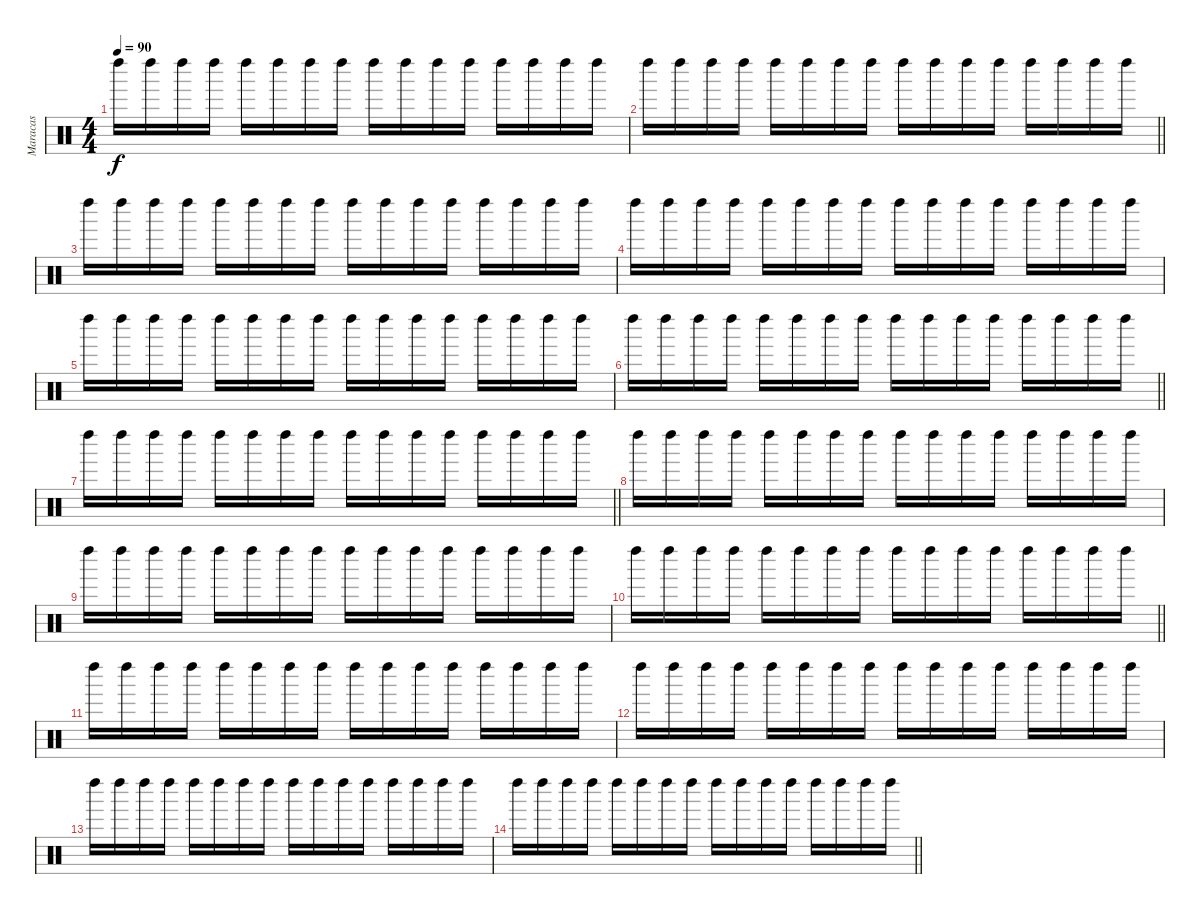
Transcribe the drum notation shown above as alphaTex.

\track ("Maracas" "Maracas") {instrument percussion}
\staff {score}
\articulation defaults
\ts (4 4)
\tempo 90
\clef neutral
\ks c "Left Maraca (hit)".16{dy f} "Left Maraca (hit)".16 "Left Maraca (hit)".16 "Left Maraca (hit)".16 "Left Maraca (hit)".16 "Left Maraca (hit)".16 "Left Maraca (hit)".16 "Left Maraca (hit)".16 "Left Maraca (hit)".16 "Left Maraca (hit)".16 "Left Maraca (hit)".16 "Left Maraca (hit)".16 "Left Maraca (hit)".16 "Left Maraca (hit)".16 "Left Maraca (hit)".16 "Left Maraca (hit)".16
|
\barLineRight lightlight "Left Maraca (hit)".16 "Left Maraca (hit)".16 "Left Maraca (hit)".16 "Left Maraca (hit)".16 "Left Maraca (hit)".16 "Left Maraca (hit)".16 "Left Maraca (hit)".16 "Left Maraca (hit)".16 "Left Maraca (hit)".16 "Left Maraca (hit)".16 "Left Maraca (hit)".16 "Left Maraca (hit)".16 "Left Maraca (hit)".16 "Left Maraca (hit)".16 "Left Maraca (hit)".16 "Left Maraca (hit)".16
|
"Left Maraca (hit)".16 "Left Maraca (hit)".16 "Left Maraca (hit)".16 "Left Maraca (hit)".16 "Left Maraca (hit)".16 "Left Maraca (hit)".16 "Left Maraca (hit)".16 "Left Maraca (hit)".16 "Left Maraca (hit)".16 "Left Maraca (hit)".16 "Left Maraca (hit)".16 "Left Maraca (hit)".16 "Left Maraca (hit)".16 "Left Maraca (hit)".16 "Left Maraca (hit)".16 "Left Maraca (hit)".16 |
"Left Maraca (hit)".16 "Left Maraca (hit)".16 "Left Maraca (hit)".16 "Left Maraca (hit)".16 "Left Maraca (hit)".16 "Left Maraca (hit)".16 "Left Maraca (hit)".16 "Left Maraca (hit)".16 "Left Maraca (hit)".16 "Left Maraca (hit)".16 "Left Maraca (hit)".16 "Left Maraca (hit)".16 "Left Maraca (hit)".16 "Left Maraca (hit)".16 "Left Maraca (hit)".16 "Left Maraca (hit)".16 |
"Left Maraca (hit)".16 "Left Maraca (hit)".16 "Left Maraca (hit)".16 "Left Maraca (hit)".16 "Left Maraca (hit)".16 "Left Maraca (hit)".16 "Left Maraca (hit)".16 "Left Maraca (hit)".16 "Left Maraca (hit)".16 "Left Maraca (hit)".16 "Left Maraca (hit)".16 "Left Maraca (hit)".16 "Left Maraca (hit)".16 "Left Maraca (hit)".16 "Left Maraca (hit)".16 "Left Maraca (hit)".16 |
\barLineRight lightlight "Left Maraca (hit)".16 "Left Maraca (hit)".16 "Left Maraca (hit)".16 "Left Maraca (hit)".16 "Left Maraca (hit)".16 "Left Maraca (hit)".16 "Left Maraca (hit)".16 "Left Maraca (hit)".16 "Left Maraca (hit)".16 "Left Maraca (hit)".16 "Left Maraca (hit)".16 "Left Maraca (hit)".16 "Left Maraca (hit)".16 "Left Maraca (hit)".16 "Left Maraca (hit)".16 "Left Maraca (hit)".16
|
\barLineRight lightlight "Left Maraca (hit)".16 "Left Maraca (hit)".16 "Left Maraca (hit)".16 "Left Maraca (hit)".16 "Left Maraca (hit)".16 "Left Maraca (hit)".16 "Left Maraca (hit)".16 "Left Maraca (hit)".16 "Left Maraca (hit)".16 "Left Maraca (hit)".16 "Left Maraca (hit)".16 "Left Maraca (hit)".16 "Left Maraca (hit)".16 "Left Maraca (hit)".16 "Left Maraca (hit)".16 "Left Maraca (hit)".16
|
"Left Maraca (hit)".16 "Left Maraca (hit)".16 "Left Maraca (hit)".16 "Left Maraca (hit)".16 "Left Maraca (hit)".16 "Left Maraca (hit)".16 "Left Maraca (hit)".16 "Left Maraca (hit)".16 "Left Maraca (hit)".16 "Left Maraca (hit)".16 "Left Maraca (hit)".16 "Left Maraca (hit)".16 "Left Maraca (hit)".16 "Left Maraca (hit)".16 "Left Maraca (hit)".16 "Left Maraca (hit)".16 |
"Left Maraca (hit)".16 "Left Maraca (hit)".16 "Left Maraca (hit)".16 "Left Maraca (hit)".16 "Left Maraca (hit)".16 "Left Maraca (hit)".16 "Left Maraca (hit)".16 "Left Maraca (hit)".16 "Left Maraca (hit)".16 "Left Maraca (hit)".16 "Left Maraca (hit)".16 "Left Maraca (hit)".16 "Left Maraca (hit)".16 "Left Maraca (hit)".16 "Left Maraca (hit)".16 "Left Maraca (hit)".16 |
\barLineRight lightlight "Left Maraca (hit)".16 "Left Maraca (hit)".16 "Left Maraca (hit)".16 "Left Maraca (hit)".16 "Left Maraca (hit)".16 "Left Maraca (hit)".16 "Left Maraca (hit)".16 "Left Maraca (hit)".16 "Left Maraca (hit)".16 "Left Maraca (hit)".16 "Left Maraca (hit)".16 "Left Maraca (hit)".16 "Left Maraca (hit)".16 "Left Maraca (hit)".16 "Left Maraca (hit)".16 "Left Maraca (hit)".16
|
"Left Maraca (hit)".16 "Left Maraca (hit)".16 "Left Maraca (hit)".16 "Left Maraca (hit)".16 "Left Maraca (hit)".16 "Left Maraca (hit)".16 "Left Maraca (hit)".16 "Left Maraca (hit)".16 "Left Maraca (hit)".16 "Left Maraca (hit)".16 "Left Maraca (hit)".16 "Left Maraca (hit)".16 "Left Maraca (hit)".16 "Left Maraca (hit)".16 "Left Maraca (hit)".16 "Left Maraca (hit)".16 |
"Left Maraca (hit)".16 "Left Maraca (hit)".16 "Left Maraca (hit)".16 "Left Maraca (hit)".16 "Left Maraca (hit)".16 "Left Maraca (hit)".16 "Left Maraca (hit)".16 "Left Maraca (hit)".16 "Left Maraca (hit)".16 "Left Maraca (hit)".16 "Left Maraca (hit)".16 "Left Maraca (hit)".16 "Left Maraca (hit)".16 "Left Maraca (hit)".16 "Left Maraca (hit)".16 "Left Maraca (hit)".16 |
"Left Maraca (hit)".16 "Left Maraca (hit)".16 "Left Maraca (hit)".16 "Left Maraca (hit)".16 "Left Maraca (hit)".16 "Left Maraca (hit)".16 "Left Maraca (hit)".16 "Left Maraca (hit)".16 "Left Maraca (hit)".16 "Left Maraca (hit)".16 "Left Maraca (hit)".16 "Left Maraca (hit)".16 "Left Maraca (hit)".16 "Left Maraca (hit)".16 "Left Maraca (hit)".16 "Left Maraca (hit)".16 |
\barLineRight lightlight "Left Maraca (hit)".16 "Left Maraca (hit)".16 "Left Maraca (hit)".16 "Left Maraca (hit)".16 "Left Maraca (hit)".16 "Left Maraca (hit)".16 "Left Maraca (hit)".16 "Left Maraca (hit)".16 "Left Maraca (hit)".16 "Left Maraca (hit)".16 "Left Maraca (hit)".16 "Left Maraca (hit)".16 "Left Maraca (hit)".16 "Left Maraca (hit)".16 "Left Maraca (hit)".16 "Left Maraca (hit)".16
